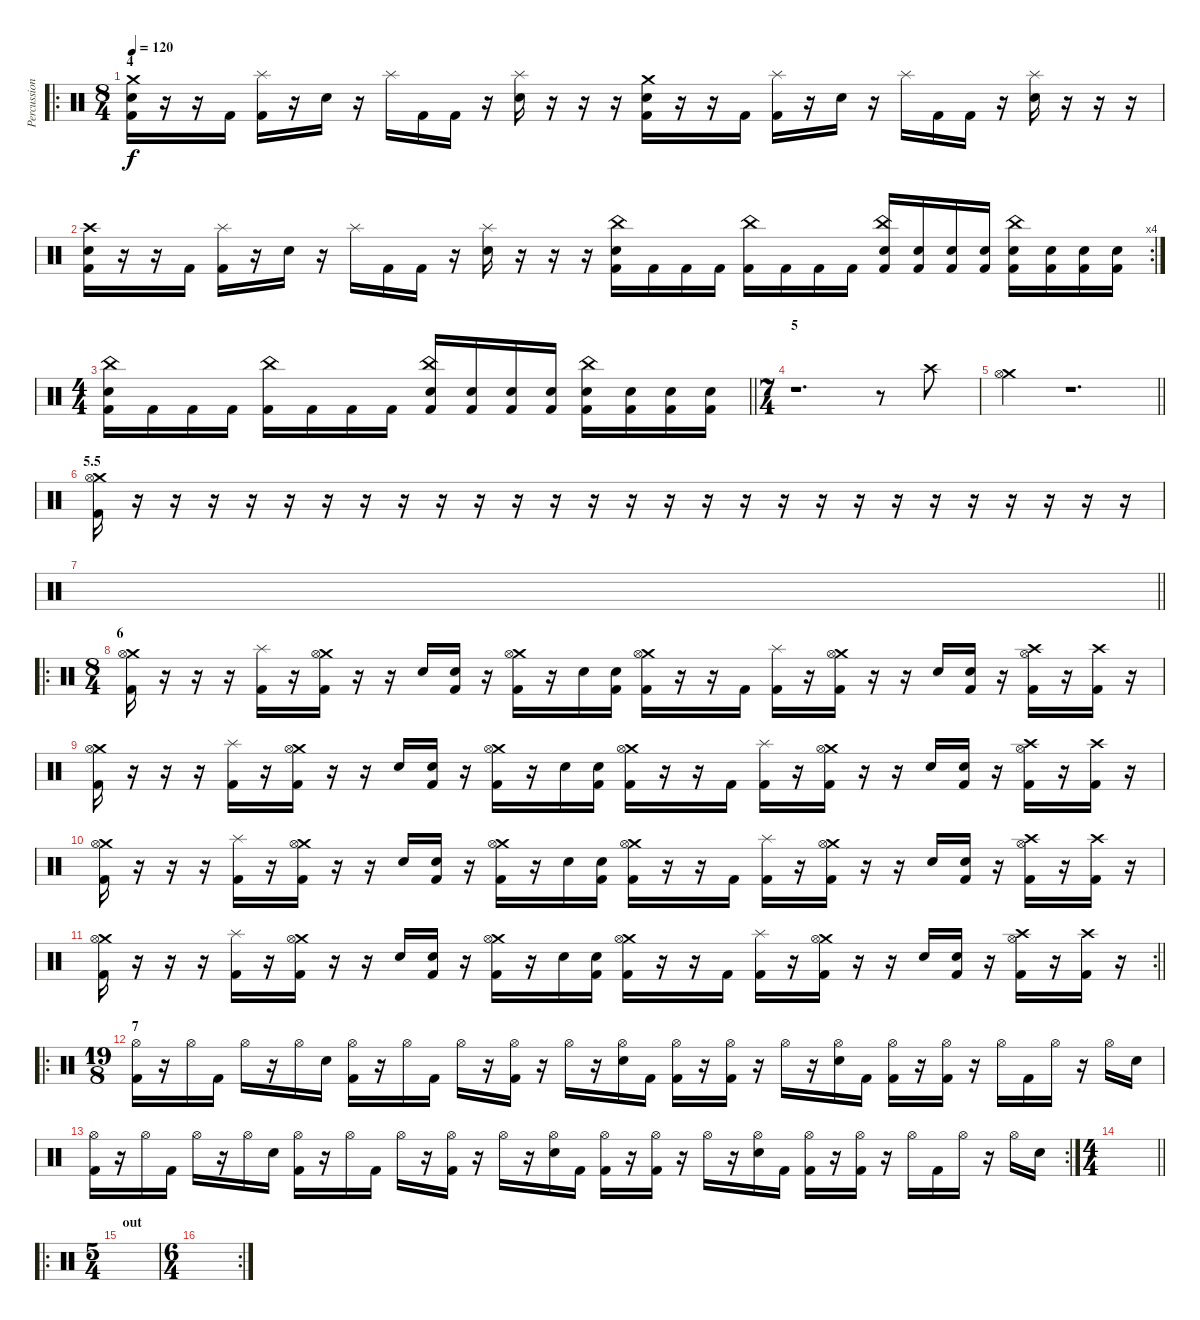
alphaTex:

\track ("Percussion" "Percussion") {instrument percussion}
\staff {score}
\articulation defaults
\ro
\ts (8 4)
\section ("" "4")
\tempo 120
\clef neutral
\ks c
("Crash medium (hit)" "Snare (hit) 2" "Kick (hit) 2").16{dy f} r.16 r.16 "Kick (hit) 2".16 ("Splash (hit)" "Kick (hit) 2").16 r.16 "Snare (hit) 2".16 r.16 "Splash (hit)".16 "Kick (hit) 2".16 "Kick (hit) 2".16 r.16 ("Splash (hit)" "Snare (hit) 2").16 r.16 r.16 r.16 ("Crash medium (hit)" "Snare (hit) 2" "Kick (hit) 2").16 r.16 r.16 "Kick (hit) 2".16 ("Splash (hit)" "Kick (hit) 2").16 r.16 "Snare (hit) 2".16 r.16 "Splash (hit)".16 "Kick (hit) 2".16 "Kick (hit) 2".16 r.16 ("Splash (hit)" "Snare (hit) 2").16 r.16 r.16 r.16 |
\rc 4
("Crash high (hit)" "Snare (hit) 2" "Kick (hit) 2").16 r.16 r.16 "Kick (hit) 2".16 ("Splash (hit)" "Kick (hit) 2").16 r.16 "Snare (hit) 2".16 r.16 "Splash (hit)".16 "Kick (hit) 2".16 "Kick (hit) 2".16 r.16 ("Splash (hit)" "Snare (hit) 2").16 r.16 r.16 r.16 ("China (hit)" "Snare (hit) 2" "Kick (hit) 2").16 "Kick (hit) 2".16 "Kick (hit) 2".16 "Kick (hit) 2".16 ("China (hit)" "Kick (hit) 2").16 "Kick (hit) 2".16 "Kick (hit) 2".16 "Kick (hit) 2".16 ("China (hit)" "Electric Snare (hit)" "Kick (hit) 2").16 ("Electric Snare (hit)" "Kick (hit) 2").16 ("Electric Snare (hit)" "Kick (hit) 2").16 ("Electric Snare (hit)" "Kick (hit) 2").16 ("China (hit)" "Snare (hit) 2" "Kick (hit) 2").16 ("Snare (hit) 2" "Kick (hit) 2").16 ("Snare (hit) 2" "Kick (hit) 2").16 ("Snare (hit) 2" "Kick (hit) 2").16 |
\ts (4 4)
\barLineRight lightlight
("China (hit)" "Snare (hit) 2" "Kick (hit) 2").16 "Kick (hit) 2".16 "Kick (hit) 2".16 "Kick (hit) 2".16 ("China (hit)" "Kick (hit) 2").16 "Kick (hit) 2".16 "Kick (hit) 2".16 "Kick (hit) 2".16 ("China (hit)" "Electric Snare (hit)" "Kick (hit) 2").16 ("Electric Snare (hit)" "Kick (hit) 2").16 ("Electric Snare (hit)" "Kick (hit) 2").16 ("Electric Snare (hit)" "Kick (hit) 2").16 ("China (hit)" "Snare (hit) 2" "Kick (hit) 2").16 ("Snare (hit) 2" "Kick (hit) 2").16 ("Snare (hit) 2" "Kick (hit) 2").16 ("Snare (hit) 2" "Kick (hit) 2").16 |
\ts (7 4)
\section ("" "5")
r.1{d} r.8 "Crash high (hit)".8 |
\barLineRight lightlight
("Crash medium (hit)" "Hi-Hat (open)").4 r.1{d} |
\section ("" "5.5")
("Crash medium (hit)" "Hi-Hat (open)" "Kick (hit) 2").16 r.16 r.16 r.16 r.16 r.16 r.16 r.16 r.16 r.16 r.16 r.16 r.16 r.16 r.16 r.16 r.16 r.16 r.16 r.16 r.16 r.16 r.16 r.16 r.16 r.16 r.16 r.16 |
\barLineRight lightlight
|
\ro
\ts (8 4)
\section ("" "6")
("Crash medium (hit)" "Hi-Hat (open)" "Kick (hit) 2").16 r.16 r.16 r.16 ("Splash (hit)" "Kick (hit) 2").16 r.16 ("Crash medium (hit)" "Hi-Hat (open)" "Kick (hit) 2").16 r.16 r.16 "Snare (hit) 2".16 ("Snare (hit) 2" "Kick (hit) 2").16 r.16 ("Crash medium (hit)" "Hi-Hat (open)" "Kick (hit) 2").16 r.16 "Snare (hit) 2".16 ("Snare (hit) 2" "Kick (hit) 2").16 ("Crash medium (hit)" "Hi-Hat (open)" "Kick (hit) 2").16 r.16 r.16 "Kick (hit) 2".16 ("Splash (hit)" "Kick (hit) 2").16 r.16 ("Crash medium (hit)" "Hi-Hat (open)" "Kick (hit) 2").16 r.16 r.16 "Snare (hit) 2".16 ("Snare (hit) 2" "Kick (hit) 2").16 r.16 ("Crash high (hit)" "Hi-Hat (open)" "Kick (hit) 2").16 r.16 ("Crash high (hit)" "Kick (hit) 2").16 r.16 |
("Crash medium (hit)" "Hi-Hat (open)" "Kick (hit) 2").16 r.16 r.16 r.16 ("Splash (hit)" "Kick (hit) 2").16 r.16 ("Crash medium (hit)" "Hi-Hat (open)" "Kick (hit) 2").16 r.16 r.16 "Snare (hit) 2".16 ("Snare (hit) 2" "Kick (hit) 2").16 r.16 ("Crash medium (hit)" "Hi-Hat (open)" "Kick (hit) 2").16 r.16 "Snare (hit) 2".16 ("Snare (hit) 2" "Kick (hit) 2").16 ("Crash medium (hit)" "Hi-Hat (open)" "Kick (hit) 2").16 r.16 r.16 "Kick (hit) 2".16 ("Splash (hit)" "Kick (hit) 2").16 r.16 ("Crash medium (hit)" "Hi-Hat (open)" "Kick (hit) 2").16 r.16 r.16 "Snare (hit) 2".16 ("Snare (hit) 2" "Kick (hit) 2").16 r.16 ("Crash high (hit)" "Hi-Hat (open)" "Kick (hit) 2").16 r.16 ("Crash high (hit)" "Kick (hit) 2").16 r.16 |
("Crash medium (hit)" "Hi-Hat (open)" "Kick (hit) 2").16 r.16 r.16 r.16 ("Splash (hit)" "Kick (hit) 2").16 r.16 ("Crash medium (hit)" "Hi-Hat (open)" "Kick (hit) 2").16 r.16 r.16 "Snare (hit) 2".16 ("Snare (hit) 2" "Kick (hit) 2").16 r.16 ("Crash medium (hit)" "Hi-Hat (open)" "Kick (hit) 2").16 r.16 "Snare (hit) 2".16 ("Snare (hit) 2" "Kick (hit) 2").16 ("Crash medium (hit)" "Hi-Hat (open)" "Kick (hit) 2").16 r.16 r.16 "Kick (hit) 2".16 ("Splash (hit)" "Kick (hit) 2").16 r.16 ("Crash medium (hit)" "Hi-Hat (open)" "Kick (hit) 2").16 r.16 r.16 "Snare (hit) 2".16 ("Snare (hit) 2" "Kick (hit) 2").16 r.16 ("Crash high (hit)" "Hi-Hat (open)" "Kick (hit) 2").16 r.16 ("Crash high (hit)" "Kick (hit) 2").16 r.16 |
\rc 2
\barLineRight lightlight
("Crash medium (hit)" "Hi-Hat (open)" "Kick (hit) 2").16 r.16 r.16 r.16 ("Splash (hit)" "Kick (hit) 2").16 r.16 ("Crash medium (hit)" "Hi-Hat (open)" "Kick (hit) 2").16 r.16 r.16 "Snare (hit) 2".16 ("Snare (hit) 2" "Kick (hit) 2").16 r.16 ("Crash medium (hit)" "Hi-Hat (open)" "Kick (hit) 2").16 r.16 "Snare (hit) 2".16 ("Snare (hit) 2" "Kick (hit) 2").16 ("Crash medium (hit)" "Hi-Hat (open)" "Kick (hit) 2").16 r.16 r.16 "Kick (hit) 2".16 ("Splash (hit)" "Kick (hit) 2").16 r.16 ("Crash medium (hit)" "Hi-Hat (open)" "Kick (hit) 2").16 r.16 r.16 "Snare (hit) 2".16 ("Snare (hit) 2" "Kick (hit) 2").16 r.16 ("Crash high (hit)" "Hi-Hat (open)" "Kick (hit) 2").16 r.16 ("Crash high (hit)" "Kick (hit) 2").16 r.16 |
\ro
\ts (19 8)
\section ("" "7")
("Hi-Hat (open)" "Kick (hit) 2").16 r.16 "Hi-Hat (open)".16 "Kick (hit) 2".16 "Hi-Hat (open)".16 r.16 "Hi-Hat (open)".16 "Snare (hit) 2".16 ("Hi-Hat (open)" "Kick (hit) 2").16 r.16 "Hi-Hat (open)".16 "Kick (hit) 2".16 "Hi-Hat (open)".16 r.16 ("Hi-Hat (open)" "Kick (hit) 2").16 r.16 "Hi-Hat (open)".16 r.16 ("Hi-Hat (open)" "Snare (hit) 2").16 "Kick (hit) 2".16 ("Hi-Hat (open)" "Kick (hit) 2").16 r.16 ("Hi-Hat (open)" "Kick (hit) 2").16 r.16 "Hi-Hat (open)".16 r.16 ("Hi-Hat (open)" "Snare (hit) 2").16 "Kick (hit) 2".16 ("Hi-Hat (open)" "Kick (hit) 2").16 r.16 ("Hi-Hat (open)" "Kick (hit) 2").16 r.16 "Hi-Hat (open)".16 "Kick (hit) 2".16 "Hi-Hat (open)".16 r.16 "Hi-Hat (open)".16 "Snare (hit) 2".16 |
\rc 2
("Hi-Hat (open)" "Kick (hit) 2").16 r.16 "Hi-Hat (open)".16 "Kick (hit) 2".16 "Hi-Hat (open)".16 r.16 "Hi-Hat (open)".16 "Snare (hit) 2".16 ("Hi-Hat (open)" "Kick (hit) 2").16 r.16 "Hi-Hat (open)".16 "Kick (hit) 2".16 "Hi-Hat (open)".16 r.16 ("Hi-Hat (open)" "Kick (hit) 2").16 r.16 "Hi-Hat (open)".16 r.16 ("Hi-Hat (open)" "Snare (hit) 2").16 "Kick (hit) 2".16 ("Hi-Hat (open)" "Kick (hit) 2").16 r.16 ("Hi-Hat (open)" "Kick (hit) 2").16 r.16 "Hi-Hat (open)".16 r.16 ("Hi-Hat (open)" "Snare (hit) 2").16 "Kick (hit) 2".16 ("Hi-Hat (open)" "Kick (hit) 2").16 r.16 ("Hi-Hat (open)" "Kick (hit) 2").16 r.16 "Hi-Hat (open)".16 "Kick (hit) 2".16 "Hi-Hat (open)".16 r.16 "Hi-Hat (open)".16 "Snare (hit) 2".16 |
\ts (4 4)
\barLineRight lightlight
|
\ro
\ts (5 4)
\section ("" "out")
|
\rc 2
\ts (6 4)
